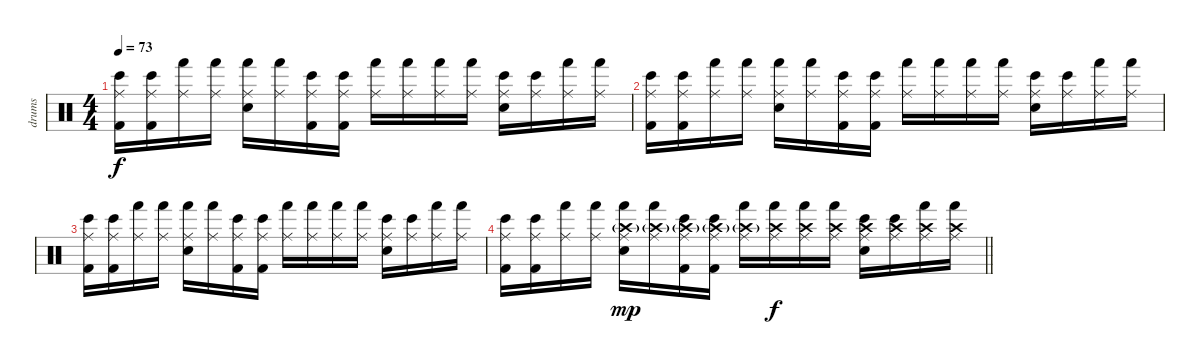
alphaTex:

\track ("drums" "drums") {instrument percussion}
\staff {score}
\articulation defaults
\ts (4 4)
\tempo 73
\clef neutral
\ks c
("Kick (hit) 2" "Bongo High (hit)" "Ride (middle)").16{dy f} ("Kick (hit) 2" "Bongo High (hit)" "Ride (middle)").16 ("Hand (hit)" "Ride (middle)").16 ("Hand (hit)" "Ride (middle)").16 ("Electric Snare (hit)" "Hand (hit)" "Ride (middle)").16 ("Hand (hit)" "Ride (middle)").16 ("Kick (hit) 2" "Bongo High (hit)" "Ride (middle)").16 ("Kick (hit) 2" "Bongo High (hit)" "Ride (middle)").16 ("Hand (hit)" "Ride (middle)").16 ("Hand (hit)" "Ride (middle)").16 ("Hand (hit)" "Ride (middle)").16 ("Hand (hit)" "Ride (middle)").16 ("Electric Snare (hit)" "Bongo High (hit)" "Ride (middle)").16 ("Bongo High (hit)" "Ride (middle)").16 ("Hand (hit)" "Ride (middle)").16 ("Hand (hit)" "Ride (middle)").16 |
("Kick (hit) 2" "Bongo High (hit)" "Ride (middle)").16 ("Kick (hit) 2" "Bongo High (hit)" "Ride (middle)").16 ("Hand (hit)" "Ride (middle)").16 ("Hand (hit)" "Ride (middle)").16 ("Electric Snare (hit)" "Hand (hit)" "Ride (middle)").16 ("Hand (hit)" "Ride (middle)").16 ("Kick (hit) 2" "Bongo High (hit)" "Ride (middle)").16 ("Kick (hit) 2" "Bongo High (hit)" "Ride (middle)").16 ("Hand (hit)" "Ride (middle)").16 ("Hand (hit)" "Ride (middle)").16 ("Hand (hit)" "Ride (middle)").16 ("Hand (hit)" "Ride (middle)").16 ("Electric Snare (hit)" "Bongo High (hit)" "Ride (middle)").16 ("Bongo High (hit)" "Ride (middle)").16 ("Hand (hit)" "Ride (middle)").16 ("Hand (hit)" "Ride (middle)").16 |
("Kick (hit) 2" "Bongo High (hit)" "Ride (middle)").16 ("Kick (hit) 2" "Bongo High (hit)" "Ride (middle)").16 ("Hand (hit)" "Ride (middle)").16 ("Hand (hit)" "Ride (middle)").16 ("Electric Snare (hit)" "Hand (hit)" "Ride (middle)").16 ("Hand (hit)" "Ride (middle)").16 ("Kick (hit) 2" "Bongo High (hit)" "Ride (middle)").16 ("Kick (hit) 2" "Bongo High (hit)" "Ride (middle)").16 ("Hand (hit)" "Ride (middle)").16 ("Hand (hit)" "Ride (middle)").16 ("Hand (hit)" "Ride (middle)").16 ("Hand (hit)" "Ride (middle)").16 ("Electric Snare (hit)" "Bongo High (hit)" "Ride (middle)").16 ("Bongo High (hit)" "Ride (middle)").16 ("Hand (hit)" "Ride (middle)").16 ("Hand (hit)" "Ride (middle)").16 |
\barLineRight lightlight
("Kick (hit) 2" "Bongo High (hit)" "Ride (middle)").16 ("Kick (hit) 2" "Bongo High (hit)" "Ride (middle)").16 ("Hand (hit)" "Ride (middle)").16 ("Hand (hit)" "Ride (middle)").16 ("Electric Snare (hit)" "Hand (hit)" "Ride (middle)" "Crash high (hit)"{g}).16{dy mp} ("Hand (hit)" "Ride (middle)" "Crash high (hit)"{g}).16 ("Kick (hit) 2" "Bongo High (hit)" "Ride (middle)" "Crash high (hit)"{g}).16 ("Kick (hit) 2" "Bongo High (hit)" "Ride (middle)" "Crash high (hit)"{g}).16 ("Hand (hit)" "Ride (middle)" "Crash high (hit)"{g}).16 ("Hand (hit)" "Ride (middle)" "Crash high (hit)").16{dy f} ("Hand (hit)" "Ride (middle)" "Crash high (hit)").16 ("Hand (hit)" "Ride (middle)" "Crash high (hit)").16 ("Electric Snare (hit)" "Bongo High (hit)" "Ride (middle)" "Crash high (hit)").16 ("Bongo High (hit)" "Ride (middle)" "Crash high (hit)").16 ("Hand (hit)" "Ride (middle)" "Crash high (hit)").16 ("Hand (hit)" "Ride (middle)" "Crash high (hit)").16
